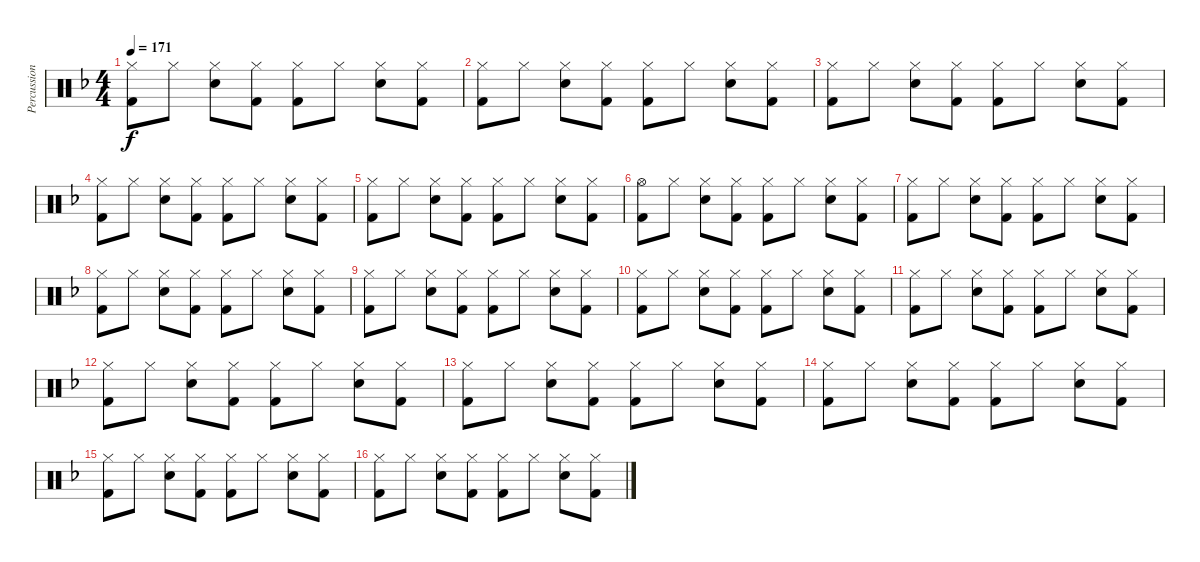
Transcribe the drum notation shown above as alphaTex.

\track ("Percussion" "Percussion") {instrument percussion}
\staff {score}
\articulation defaults
\ts (4 4)
\tempo 171
\clef neutral
\ks f
("Hi-Hat (closed)" "Kick (hit) 2").8{dy f} "Hi-Hat (closed)".8 ("Hi-Hat (closed)" "Snare (hit) 2").8 ("Hi-Hat (closed)" "Kick (hit) 2").8 ("Hi-Hat (closed)" "Kick (hit) 2").8 "Hi-Hat (closed)".8 ("Hi-Hat (closed)" "Snare (hit) 2").8 ("Hi-Hat (closed)" "Kick (hit) 2").8 |
("Hi-Hat (closed)" "Kick (hit) 2").8 "Hi-Hat (closed)".8 ("Hi-Hat (closed)" "Snare (hit) 2").8 ("Hi-Hat (closed)" "Kick (hit) 2").8 ("Hi-Hat (closed)" "Kick (hit) 2").8 "Hi-Hat (closed)".8 ("Hi-Hat (closed)" "Snare (hit) 2").8 ("Hi-Hat (closed)" "Kick (hit) 2").8 |
("Hi-Hat (closed)" "Kick (hit) 2").8 "Hi-Hat (closed)".8 ("Hi-Hat (closed)" "Snare (hit) 2").8 ("Hi-Hat (closed)" "Kick (hit) 2").8 ("Hi-Hat (closed)" "Kick (hit) 2").8 "Hi-Hat (closed)".8 ("Hi-Hat (closed)" "Snare (hit) 2").8 ("Hi-Hat (closed)" "Kick (hit) 2").8 |
("Hi-Hat (closed)" "Kick (hit) 2").8 "Hi-Hat (closed)".8 ("Hi-Hat (closed)" "Snare (hit) 2").8 ("Hi-Hat (closed)" "Kick (hit) 2").8 ("Hi-Hat (closed)" "Kick (hit) 2").8 "Hi-Hat (closed)".8 ("Hi-Hat (closed)" "Snare (hit) 2").8 ("Hi-Hat (closed)" "Kick (hit) 2").8 |
("Hi-Hat (closed)" "Kick (hit) 2").8 "Hi-Hat (closed)".8 ("Hi-Hat (closed)" "Snare (hit) 2").8 ("Hi-Hat (closed)" "Kick (hit) 2").8 ("Hi-Hat (closed)" "Kick (hit) 2").8 "Hi-Hat (closed)".8 ("Hi-Hat (closed)" "Snare (hit) 2").8 ("Hi-Hat (closed)" "Kick (hit) 2").8 |
("Hi-Hat (open)" "Kick (hit) 2").8 "Hi-Hat (closed)".8 ("Hi-Hat (closed)" "Snare (hit) 2").8 ("Hi-Hat (closed)" "Kick (hit) 2").8 ("Hi-Hat (closed)" "Kick (hit) 2").8 "Hi-Hat (closed)".8 ("Hi-Hat (closed)" "Snare (hit) 2").8 ("Hi-Hat (closed)" "Kick (hit) 2").8 |
("Hi-Hat (closed)" "Kick (hit) 2").8 "Hi-Hat (closed)".8 ("Hi-Hat (closed)" "Snare (hit) 2").8 ("Hi-Hat (closed)" "Kick (hit) 2").8 ("Hi-Hat (closed)" "Kick (hit) 2").8 "Hi-Hat (closed)".8 ("Hi-Hat (closed)" "Snare (hit) 2").8 ("Hi-Hat (closed)" "Kick (hit) 2").8 |
("Hi-Hat (closed)" "Kick (hit) 2").8 "Hi-Hat (closed)".8 ("Hi-Hat (closed)" "Snare (hit) 2").8 ("Hi-Hat (closed)" "Kick (hit) 2").8 ("Hi-Hat (closed)" "Kick (hit) 2").8 "Hi-Hat (closed)".8 ("Hi-Hat (closed)" "Snare (hit) 2").8 ("Hi-Hat (closed)" "Kick (hit) 2").8 |
("Hi-Hat (closed)" "Kick (hit) 2").8 "Hi-Hat (closed)".8 ("Hi-Hat (closed)" "Snare (hit) 2").8 ("Hi-Hat (closed)" "Kick (hit) 2").8 ("Hi-Hat (closed)" "Kick (hit) 2").8 "Hi-Hat (closed)".8 ("Hi-Hat (closed)" "Snare (hit) 2").8 ("Hi-Hat (closed)" "Kick (hit) 2").8 |
("Hi-Hat (closed)" "Kick (hit) 2").8 "Hi-Hat (closed)".8 ("Hi-Hat (closed)" "Snare (hit) 2").8 ("Hi-Hat (closed)" "Kick (hit) 2").8 ("Hi-Hat (closed)" "Kick (hit) 2").8 "Hi-Hat (closed)".8 ("Hi-Hat (closed)" "Snare (hit) 2").8 ("Hi-Hat (closed)" "Kick (hit) 2").8 |
("Hi-Hat (closed)" "Kick (hit) 2").8 "Hi-Hat (closed)".8 ("Hi-Hat (closed)" "Snare (hit) 2").8 ("Hi-Hat (closed)" "Kick (hit) 2").8 ("Hi-Hat (closed)" "Kick (hit) 2").8 "Hi-Hat (closed)".8 ("Hi-Hat (closed)" "Snare (hit) 2").8 ("Hi-Hat (closed)" "Kick (hit) 2").8 |
("Hi-Hat (closed)" "Kick (hit) 2").8 "Hi-Hat (closed)".8 ("Hi-Hat (closed)" "Snare (hit) 2").8 ("Hi-Hat (closed)" "Kick (hit) 2").8 ("Hi-Hat (closed)" "Kick (hit) 2").8 "Hi-Hat (closed)".8 ("Hi-Hat (closed)" "Snare (hit) 2").8 ("Hi-Hat (closed)" "Kick (hit) 2").8 |
("Hi-Hat (closed)" "Kick (hit) 2").8 "Hi-Hat (closed)".8 ("Hi-Hat (closed)" "Snare (hit) 2").8 ("Hi-Hat (closed)" "Kick (hit) 2").8 ("Hi-Hat (closed)" "Kick (hit) 2").8 "Hi-Hat (closed)".8 ("Hi-Hat (closed)" "Snare (hit) 2").8 ("Hi-Hat (closed)" "Kick (hit) 2").8 |
("Hi-Hat (closed)" "Kick (hit) 2").8 "Hi-Hat (closed)".8 ("Hi-Hat (closed)" "Snare (hit) 2").8 ("Hi-Hat (closed)" "Kick (hit) 2").8 ("Hi-Hat (closed)" "Kick (hit) 2").8 "Hi-Hat (closed)".8 ("Hi-Hat (closed)" "Snare (hit) 2").8 ("Hi-Hat (closed)" "Kick (hit) 2").8 |
("Hi-Hat (closed)" "Kick (hit) 2").8 "Hi-Hat (closed)".8 ("Hi-Hat (closed)" "Snare (hit) 2").8 ("Hi-Hat (closed)" "Kick (hit) 2").8 ("Hi-Hat (closed)" "Kick (hit) 2").8 "Hi-Hat (closed)".8 ("Hi-Hat (closed)" "Snare (hit) 2").8 ("Hi-Hat (closed)" "Kick (hit) 2").8 |
("Hi-Hat (closed)" "Kick (hit) 2").8 "Hi-Hat (closed)".8 ("Hi-Hat (closed)" "Snare (hit) 2").8 ("Hi-Hat (closed)" "Kick (hit) 2").8 ("Hi-Hat (closed)" "Kick (hit) 2").8 "Hi-Hat (closed)".8 ("Hi-Hat (closed)" "Snare (hit) 2").8 ("Hi-Hat (closed)" "Kick (hit) 2").8
